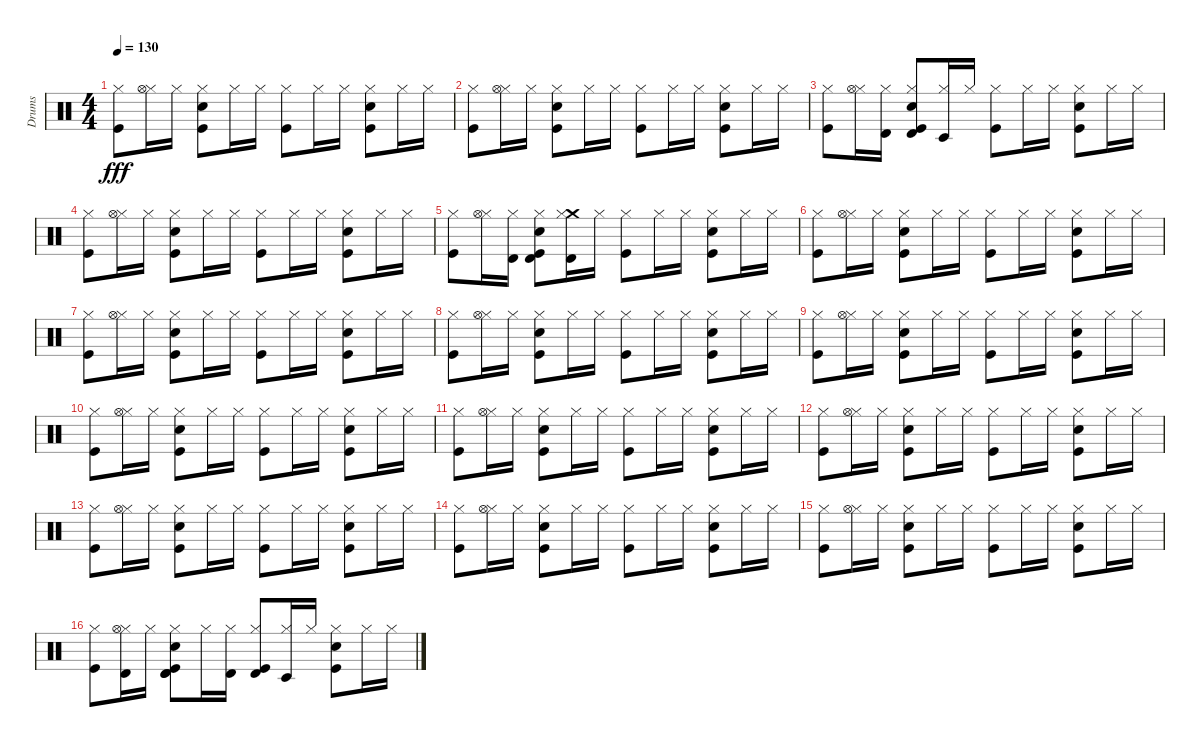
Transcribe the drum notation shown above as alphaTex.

\track ("Drums" "Drums") {instrument percussion}
\staff {score}
\articulation defaults
\ts (4 4)
\tempo 130
\clef neutral
\ks c
("Kick (hit)" "Hi-Hat (closed)").8{dy fff} ("Hi-Hat (closed)" "Hi-Hat (open)").16 "Hi-Hat (closed)".16 ("Kick (hit)" "Electric Snare (hit)" "Hi-Hat (closed)").8 "Hi-Hat (closed)".16 "Hi-Hat (closed)".16 ("Kick (hit)" "Hi-Hat (closed)").8 "Hi-Hat (closed)".16 "Hi-Hat (closed)".16 ("Kick (hit)" "Electric Snare (hit)" "Hi-Hat (closed)").8 "Hi-Hat (closed)".16 "Hi-Hat (closed)".16 |
("Kick (hit)" "Hi-Hat (closed)").8 ("Hi-Hat (closed)" "Hi-Hat (open)").16 "Hi-Hat (closed)".16 ("Kick (hit)" "Electric Snare (hit)" "Hi-Hat (closed)").8 "Hi-Hat (closed)".16 "Hi-Hat (closed)".16 ("Kick (hit)" "Hi-Hat (closed)").8 "Hi-Hat (closed)".16 "Hi-Hat (closed)".16 ("Kick (hit)" "Electric Snare (hit)" "Hi-Hat (closed)").8 "Hi-Hat (closed)".16 "Hi-Hat (closed)".16 |
("Kick (hit)" "Hi-Hat (closed)").8 ("Hi-Hat (closed)" "Hi-Hat (open)").16 ("Hi-Hat (closed)" "Timbale high (hit)").16 ("Kick (hit)" "Electric Snare (hit)" "Hi-Hat (closed)" "Timbale high (hit)").8 ("Hi-Hat (closed)" "Timbale low (hit)").16 "Hi-Hat (closed)".16 ("Kick (hit)" "Hi-Hat (closed)").8 "Hi-Hat (closed)".16 "Hi-Hat (closed)".16 ("Kick (hit)" "Electric Snare (hit)" "Hi-Hat (closed)").8 "Hi-Hat (closed)".16 "Hi-Hat (closed)".16 |
("Kick (hit)" "Hi-Hat (closed)").8 ("Hi-Hat (closed)" "Hi-Hat (open)").16 "Hi-Hat (closed)".16 ("Kick (hit)" "Electric Snare (hit)" "Hi-Hat (closed)").8 "Hi-Hat (closed)".16 "Hi-Hat (closed)".16 ("Kick (hit)" "Hi-Hat (closed)").8 "Hi-Hat (closed)".16 "Hi-Hat (closed)".16 ("Kick (hit)" "Electric Snare (hit)" "Hi-Hat (closed)").8 "Hi-Hat (closed)".16 "Hi-Hat (closed)".16 |
("Kick (hit)" "Hi-Hat (closed)").8 ("Hi-Hat (closed)" "Hi-Hat (open)").16 ("Hi-Hat (closed)" "Timbale high (hit)").16 ("Kick (hit)" "Electric Snare (hit)" "Hi-Hat (closed)" "Timbale high (hit)").8 ("Crash medium (hit)" "Hi-Hat (closed)" "Timbale high (hit)").16 "Hi-Hat (closed)".16 ("Kick (hit)" "Hi-Hat (closed)").8 "Hi-Hat (closed)".16 "Hi-Hat (closed)".16 ("Kick (hit)" "Electric Snare (hit)" "Hi-Hat (closed)").8 "Hi-Hat (closed)".16 "Hi-Hat (closed)".16 |
("Kick (hit)" "Hi-Hat (closed)").8 ("Hi-Hat (closed)" "Hi-Hat (open)").16 "Hi-Hat (closed)".16 ("Kick (hit)" "Electric Snare (hit)" "Hi-Hat (closed)").8 "Hi-Hat (closed)".16 "Hi-Hat (closed)".16 ("Kick (hit)" "Hi-Hat (closed)").8 "Hi-Hat (closed)".16 "Hi-Hat (closed)".16 ("Kick (hit)" "Electric Snare (hit)" "Hi-Hat (closed)").8 "Hi-Hat (closed)".16 "Hi-Hat (closed)".16 |
("Kick (hit)" "Hi-Hat (closed)").8 ("Hi-Hat (closed)" "Hi-Hat (open)").16 "Hi-Hat (closed)".16 ("Kick (hit)" "Electric Snare (hit)" "Hi-Hat (closed)").8 "Hi-Hat (closed)".16 "Hi-Hat (closed)".16 ("Kick (hit)" "Hi-Hat (closed)").8 "Hi-Hat (closed)".16 "Hi-Hat (closed)".16 ("Kick (hit)" "Electric Snare (hit)" "Hi-Hat (closed)").8 "Hi-Hat (closed)".16 "Hi-Hat (closed)".16 |
("Kick (hit)" "Hi-Hat (closed)").8 ("Hi-Hat (closed)" "Hi-Hat (open)").16 "Hi-Hat (closed)".16 ("Kick (hit)" "Electric Snare (hit)" "Hi-Hat (closed)").8 "Hi-Hat (closed)".16 "Hi-Hat (closed)".16 ("Kick (hit)" "Hi-Hat (closed)").8 "Hi-Hat (closed)".16 "Hi-Hat (closed)".16 ("Kick (hit)" "Electric Snare (hit)" "Hi-Hat (closed)").8 "Hi-Hat (closed)".16 "Hi-Hat (closed)".16 |
("Kick (hit)" "Hi-Hat (closed)").8 ("Hi-Hat (closed)" "Hi-Hat (open)").16 "Hi-Hat (closed)".16 ("Kick (hit)" "Electric Snare (hit)" "Hi-Hat (closed)").8 "Hi-Hat (closed)".16 "Hi-Hat (closed)".16 ("Kick (hit)" "Hi-Hat (closed)").8 "Hi-Hat (closed)".16 "Hi-Hat (closed)".16 ("Kick (hit)" "Electric Snare (hit)" "Hi-Hat (closed)").8 "Hi-Hat (closed)".16 "Hi-Hat (closed)".16 |
("Kick (hit)" "Hi-Hat (closed)").8 ("Hi-Hat (closed)" "Hi-Hat (open)").16 "Hi-Hat (closed)".16 ("Kick (hit)" "Electric Snare (hit)" "Hi-Hat (closed)").8 "Hi-Hat (closed)".16 "Hi-Hat (closed)".16 ("Kick (hit)" "Hi-Hat (closed)").8 "Hi-Hat (closed)".16 "Hi-Hat (closed)".16 ("Kick (hit)" "Electric Snare (hit)" "Hi-Hat (closed)").8 "Hi-Hat (closed)".16 "Hi-Hat (closed)".16 |
("Kick (hit)" "Hi-Hat (closed)").8 ("Hi-Hat (closed)" "Hi-Hat (open)").16 "Hi-Hat (closed)".16 ("Kick (hit)" "Electric Snare (hit)" "Hi-Hat (closed)").8 "Hi-Hat (closed)".16 "Hi-Hat (closed)".16 ("Kick (hit)" "Hi-Hat (closed)").8 "Hi-Hat (closed)".16 "Hi-Hat (closed)".16 ("Kick (hit)" "Electric Snare (hit)" "Hi-Hat (closed)").8 "Hi-Hat (closed)".16 "Hi-Hat (closed)".16 |
("Kick (hit)" "Hi-Hat (closed)").8 ("Hi-Hat (closed)" "Hi-Hat (open)").16 "Hi-Hat (closed)".16 ("Kick (hit)" "Electric Snare (hit)" "Hi-Hat (closed)").8 "Hi-Hat (closed)".16 "Hi-Hat (closed)".16 ("Kick (hit)" "Hi-Hat (closed)").8 "Hi-Hat (closed)".16 "Hi-Hat (closed)".16 ("Kick (hit)" "Electric Snare (hit)" "Hi-Hat (closed)").8 "Hi-Hat (closed)".16 "Hi-Hat (closed)".16 |
("Kick (hit)" "Hi-Hat (closed)").8 ("Hi-Hat (closed)" "Hi-Hat (open)").16 "Hi-Hat (closed)".16 ("Kick (hit)" "Electric Snare (hit)" "Hi-Hat (closed)").8 "Hi-Hat (closed)".16 "Hi-Hat (closed)".16 ("Kick (hit)" "Hi-Hat (closed)").8 "Hi-Hat (closed)".16 "Hi-Hat (closed)".16 ("Kick (hit)" "Electric Snare (hit)" "Hi-Hat (closed)").8 "Hi-Hat (closed)".16 "Hi-Hat (closed)".16 |
("Kick (hit)" "Hi-Hat (closed)").8 ("Hi-Hat (closed)" "Hi-Hat (open)").16 "Hi-Hat (closed)".16 ("Kick (hit)" "Electric Snare (hit)" "Hi-Hat (closed)").8 "Hi-Hat (closed)".16 "Hi-Hat (closed)".16 ("Kick (hit)" "Hi-Hat (closed)").8 "Hi-Hat (closed)".16 "Hi-Hat (closed)".16 ("Kick (hit)" "Electric Snare (hit)" "Hi-Hat (closed)").8 "Hi-Hat (closed)".16 "Hi-Hat (closed)".16 |
("Kick (hit)" "Hi-Hat (closed)").8 ("Hi-Hat (closed)" "Hi-Hat (open)").16 "Hi-Hat (closed)".16 ("Kick (hit)" "Electric Snare (hit)" "Hi-Hat (closed)").8 "Hi-Hat (closed)".16 "Hi-Hat (closed)".16 ("Kick (hit)" "Hi-Hat (closed)").8 "Hi-Hat (closed)".16 "Hi-Hat (closed)".16 ("Kick (hit)" "Electric Snare (hit)" "Hi-Hat (closed)").8 "Hi-Hat (closed)".16 "Hi-Hat (closed)".16 |
("Kick (hit)" "Hi-Hat (closed)").8 ("Hi-Hat (closed)" "Hi-Hat (open)" "Timbale high (hit)").16 "Hi-Hat (closed)".16 ("Kick (hit)" "Electric Snare (hit)" "Hi-Hat (closed)" "Timbale high (hit)" "Timbale high (hit)").8 "Hi-Hat (closed)".16 ("Hi-Hat (closed)" "Timbale high (hit)").16 ("Kick (hit)" "Hi-Hat (closed)" "Timbale high (hit)").8 ("Hi-Hat (closed)" "Timbale low (hit)").16 "Hi-Hat (closed)".16 ("Kick (hit)" "Electric Snare (hit)" "Hi-Hat (closed)").8 "Hi-Hat (closed)".16 "Hi-Hat (closed)".16
